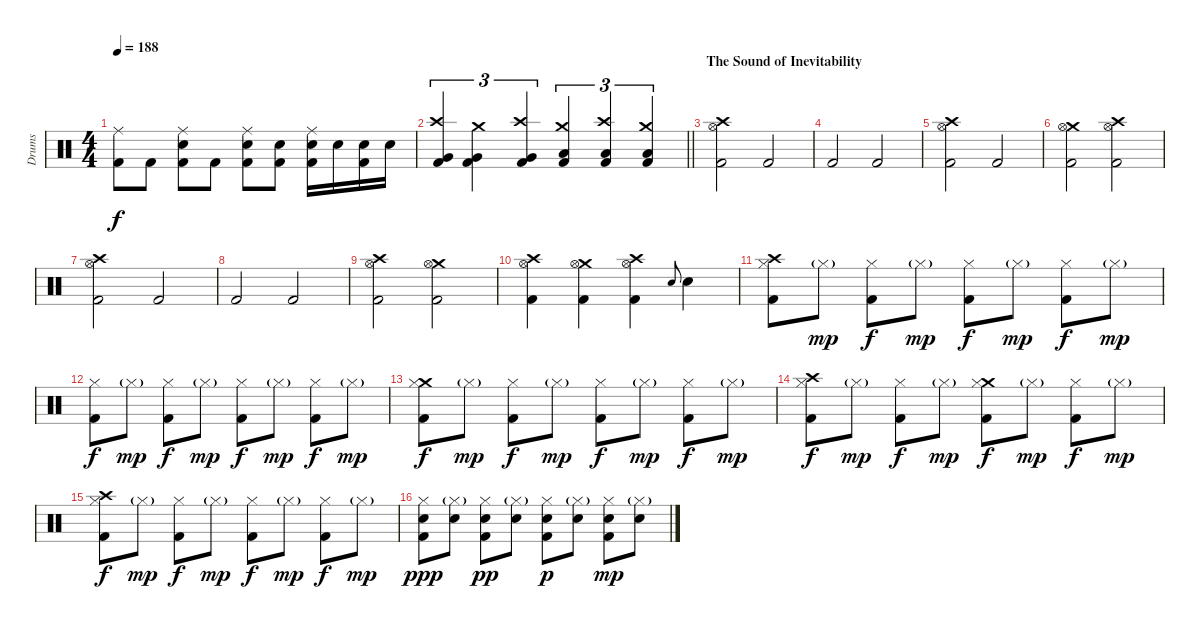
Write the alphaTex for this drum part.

\track ("Drums" "Drums") {instrument percussion}
\staff {score}
\articulation defaults
\ts (4 4)
\tempo 188
\clef neutral
\ks c
("Ride (middle)" "Kick (hit) 2").8{dy f} "Kick (hit) 2".8 ("Ride (middle)" "Snare (hit) 2" "Kick (hit) 2").8 "Kick (hit) 2".8 ("Ride (middle)" "Snare (hit) 2" "Kick (hit) 2").8 ("Snare (hit) 2" "Kick (hit) 2").8 ("Ride (middle)" "Snare (hit) 2" "Kick (hit) 2").16 "Snare (hit) 2".16 ("Snare (hit) 2" "Kick (hit) 2").16 "Snare (hit) 2".16 |
\barLineRight lightlight
("Crash high (hit)" "Very Low Tom (hit)" "Kick (hit) 2").4{tu (3 2)} ("Crash medium (hit)" "Very Low Tom (hit)" "Kick (hit) 2").4{tu (3 2)} ("Crash high (hit)" "Very Low Tom (hit)" "Kick (hit) 2").4{tu (3 2)} ("Crash medium (hit)" "Low Floor Tom (hit)" "Kick (hit) 2").4{tu (3 2)} ("Crash high (hit)" "Low Floor Tom (hit)" "Kick (hit) 2").4{tu (3 2)} ("Crash medium (hit)" "Low Floor Tom (hit)" "Kick (hit) 2").4{tu (3 2)} |
\section ("" "The Sound of Inevitability")
("Crash high (hit)" "Hi-Hat (open)" "Kick (hit) 2").2 "Kick (hit) 2".2 |
"Kick (hit) 2".2 "Kick (hit) 2".2 |
("Crash high (hit)" "Hi-Hat (open)" "Kick (hit) 2").2 "Kick (hit) 2".2 |
("Crash medium (hit)" "Hi-Hat (open)" "Kick (hit) 2").2 ("Crash high (hit)" "Hi-Hat (open)" "Kick (hit) 2").2 |
("Crash high (hit)" "Hi-Hat (open)" "Kick (hit) 2").2 "Kick (hit) 2".2 |
"Kick (hit) 2".2 "Kick (hit) 2".2 |
("Crash high (hit)" "Hi-Hat (open)" "Kick (hit) 2").2 ("Crash medium (hit)" "Hi-Hat (open)" "Kick (hit) 2").2 |
("Crash high (hit)" "Hi-Hat (open)" "Kick (hit) 2").4 ("Crash medium (hit)" "Hi-Hat (open)" "Kick (hit) 2").4 ("Crash high (hit)" "Hi-Hat (open)" "Kick (hit) 2").4 "Snare (hit) 2".8{gr onbeat} "Snare (hit) 2".4 |
("Crash high (hit)" "Hi-Hat (closed)" "Kick (hit) 2").8 "Hi-Hat (closed)"{g}.8{dy mp} ("Hi-Hat (closed)" "Kick (hit) 2").8{dy f} "Hi-Hat (closed)"{g}.8{dy mp} ("Hi-Hat (closed)" "Kick (hit) 2").8{dy f} "Hi-Hat (closed)"{g}.8{dy mp} ("Hi-Hat (closed)" "Kick (hit) 2").8{dy f} "Hi-Hat (closed)"{g}.8{dy mp} |
("Hi-Hat (closed)" "Kick (hit) 2").8{dy f} "Hi-Hat (closed)"{g}.8{dy mp} ("Hi-Hat (closed)" "Kick (hit) 2").8{dy f} "Hi-Hat (closed)"{g}.8{dy mp} ("Hi-Hat (closed)" "Kick (hit) 2").8{dy f} "Hi-Hat (closed)"{g}.8{dy mp} ("Hi-Hat (closed)" "Kick (hit) 2").8{dy f} "Hi-Hat (closed)"{g}.8{dy mp} |
("Crash medium (hit)" "Hi-Hat (closed)" "Kick (hit) 2").8{dy f} "Hi-Hat (closed)"{g}.8{dy mp} ("Hi-Hat (closed)" "Kick (hit) 2").8{dy f} "Hi-Hat (closed)"{g}.8{dy mp} ("Hi-Hat (closed)" "Kick (hit) 2").8{dy f} "Hi-Hat (closed)"{g}.8{dy mp} ("Hi-Hat (closed)" "Kick (hit) 2").8{dy f} "Hi-Hat (closed)"{g}.8{dy mp} |
("Crash high (hit)" "Hi-Hat (closed)" "Kick (hit) 2").8{dy f} "Hi-Hat (closed)"{g}.8{dy mp} ("Hi-Hat (closed)" "Kick (hit) 2").8{dy f} "Hi-Hat (closed)"{g}.8{dy mp} ("Crash medium (hit)" "Hi-Hat (closed)" "Kick (hit) 2").8{dy f} "Hi-Hat (closed)"{g}.8{dy mp} ("Hi-Hat (closed)" "Kick (hit) 2").8{dy f} "Hi-Hat (closed)"{g}.8{dy mp} |
("Crash high (hit)" "Hi-Hat (closed)" "Kick (hit) 2").8{dy f} "Hi-Hat (closed)"{g}.8{dy mp} ("Hi-Hat (closed)" "Kick (hit) 2").8{dy f} "Hi-Hat (closed)"{g}.8{dy mp} ("Hi-Hat (closed)" "Kick (hit) 2").8{dy f} "Hi-Hat (closed)"{g}.8{dy mp} ("Hi-Hat (closed)" "Kick (hit) 2").8{dy f} "Hi-Hat (closed)"{g}.8{dy mp} |
("Hi-Hat (closed)" "Snare (hit) 2" "Kick (hit) 2").8{dy ppp} ("Hi-Hat (closed)"{g} "Snare (hit) 2").8 ("Hi-Hat (closed)" "Snare (hit) 2" "Kick (hit) 2").8{dy pp} ("Hi-Hat (closed)"{g} "Snare (hit) 2").8 ("Hi-Hat (closed)" "Snare (hit) 2" "Kick (hit) 2").8{dy p} ("Hi-Hat (closed)"{g} "Snare (hit) 2").8 ("Hi-Hat (closed)" "Snare (hit) 2" "Kick (hit) 2").8{dy mp} ("Hi-Hat (closed)"{g} "Snare (hit) 2").8
